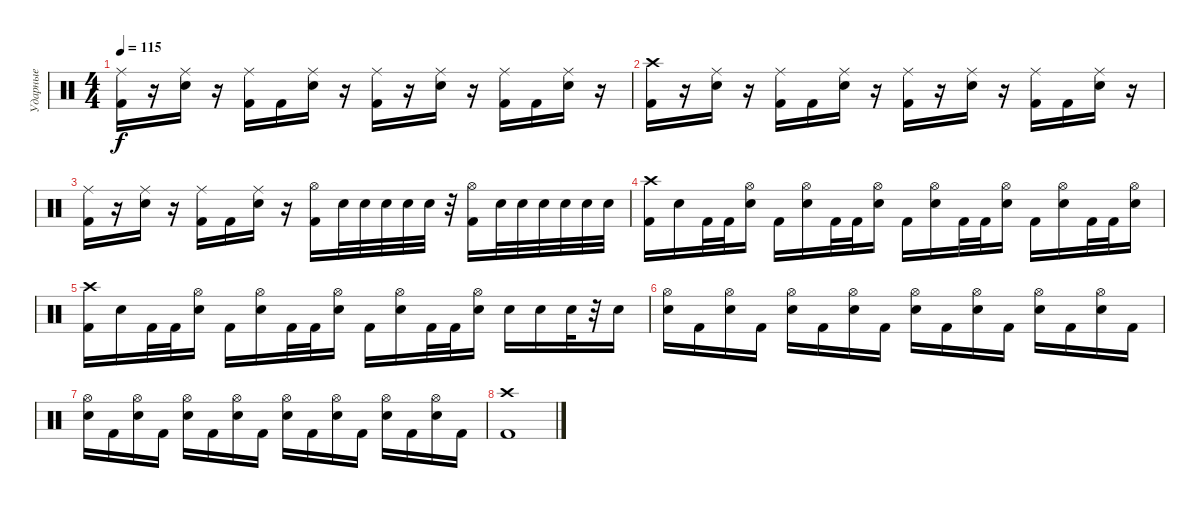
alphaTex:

\track ("Ударные" "Ударные") {instrument percussion}
\staff {score}
\articulation defaults
\ts (4 4)
\tempo 115
\clef neutral
\ks c
("Ride (middle)" "Kick (hit) 2").16{dy f} r.16 ("Ride (middle)" "Snare (hit) 2").16 r.16 ("Ride (middle)" "Kick (hit) 2").16 "Kick (hit) 2".16 ("Ride (middle)" "Snare (hit) 2").16 r.16 ("Ride (middle)" "Kick (hit) 2").16 r.16 ("Ride (middle)" "Snare (hit) 2").16 r.16 ("Ride (middle)" "Kick (hit) 2").16 "Kick (hit) 2".16 ("Ride (middle)" "Snare (hit) 2").16 r.16 |
("Crash high (hit)" "Kick (hit) 2").16 r.16 ("Ride (middle)" "Snare (hit) 2").16 r.16 ("Ride (middle)" "Kick (hit) 2").16 "Kick (hit) 2".16 ("Ride (middle)" "Snare (hit) 2").16 r.16 ("Ride (middle)" "Kick (hit) 2").16 r.16 ("Ride (middle)" "Snare (hit) 2").16 r.16 ("Ride (middle)" "Kick (hit) 2").16 "Kick (hit) 2".16 ("Ride (middle)" "Snare (hit) 2").16 r.16 |
("Ride (middle)" "Kick (hit) 2").16 r.16 ("Ride (middle)" "Snare (hit) 2").16 r.16 ("Ride (middle)" "Kick (hit) 2").16 "Kick (hit) 2".16 ("Ride (middle)" "Snare (hit) 2").16 r.16 ("Hi-Hat (open)" "Kick (hit) 2").16 "Snare (hit) 2".32 "Snare (hit) 2".32 "Snare (hit) 2".32 "Snare (hit) 2".32 "Snare (hit) 2".32 r.32 ("Hi-Hat (open)" "Kick (hit) 2").16 "Snare (hit) 2".32 "Snare (hit) 2".32 "Snare (hit) 2".32 "Snare (hit) 2".32 "Snare (hit) 2".32 "Snare (hit) 2".32 |
("Crash high (hit)" "Kick (hit) 2").16 "Snare (hit) 2".16 "Kick (hit) 2".32 "Kick (hit) 2".32 ("Hi-Hat (open)" "Snare (hit) 2").16 "Kick (hit) 2".16 ("Hi-Hat (open)" "Snare (hit) 2").16 "Kick (hit) 2".32 "Kick (hit) 2".32 ("Hi-Hat (open)" "Snare (hit) 2").16 "Kick (hit) 2".16 ("Hi-Hat (open)" "Snare (hit) 2").16 "Kick (hit) 2".32 "Kick (hit) 2".32 ("Hi-Hat (open)" "Snare (hit) 2").16 "Kick (hit) 2".16 ("Hi-Hat (open)" "Snare (hit) 2").16 "Kick (hit) 2".32 "Kick (hit) 2".32 ("Hi-Hat (open)" "Snare (hit) 2").16 |
("Crash high (hit)" "Kick (hit) 2").16 "Snare (hit) 2".16 "Kick (hit) 2".32 "Kick (hit) 2".32 ("Hi-Hat (open)" "Snare (hit) 2").16 "Kick (hit) 2".16 ("Hi-Hat (open)" "Snare (hit) 2").16 "Kick (hit) 2".32 "Kick (hit) 2".32 ("Hi-Hat (open)" "Snare (hit) 2").16 "Kick (hit) 2".16 ("Hi-Hat (open)" "Snare (hit) 2").16 "Kick (hit) 2".32 "Kick (hit) 2".32 ("Hi-Hat (open)" "Snare (hit) 2").16 "Snare (hit) 2".16 "Snare (hit) 2".16 "Snare (hit) 2".32 r.32 "Snare (hit) 2".16 |
("Hi-Hat (open)" "Snare (hit) 2").16 "Kick (hit) 2".16 ("Hi-Hat (open)" "Snare (hit) 2").16 "Kick (hit) 2".16 ("Hi-Hat (open)" "Snare (hit) 2").16 "Kick (hit) 2".16 ("Hi-Hat (open)" "Snare (hit) 2").16 "Kick (hit) 2".16 ("Hi-Hat (open)" "Snare (hit) 2").16 "Kick (hit) 2".16 ("Hi-Hat (open)" "Snare (hit) 2").16 "Kick (hit) 2".16 ("Hi-Hat (open)" "Snare (hit) 2").16 "Kick (hit) 2".16 ("Hi-Hat (open)" "Snare (hit) 2").16 "Kick (hit) 2".16 |
("Hi-Hat (open)" "Snare (hit) 2").16 "Kick (hit) 2".16 ("Hi-Hat (open)" "Snare (hit) 2").16 "Kick (hit) 2".16 ("Hi-Hat (open)" "Snare (hit) 2").16 "Kick (hit) 2".16 ("Hi-Hat (open)" "Snare (hit) 2").16 "Kick (hit) 2".16 ("Hi-Hat (open)" "Snare (hit) 2").16 "Kick (hit) 2".16 ("Hi-Hat (open)" "Snare (hit) 2").16 "Kick (hit) 2".16 ("Hi-Hat (open)" "Snare (hit) 2").16 "Kick (hit) 2".16 ("Hi-Hat (open)" "Snare (hit) 2").16 "Kick (hit) 2".16 |
("Crash high (hit)" "Kick (hit) 2").1
